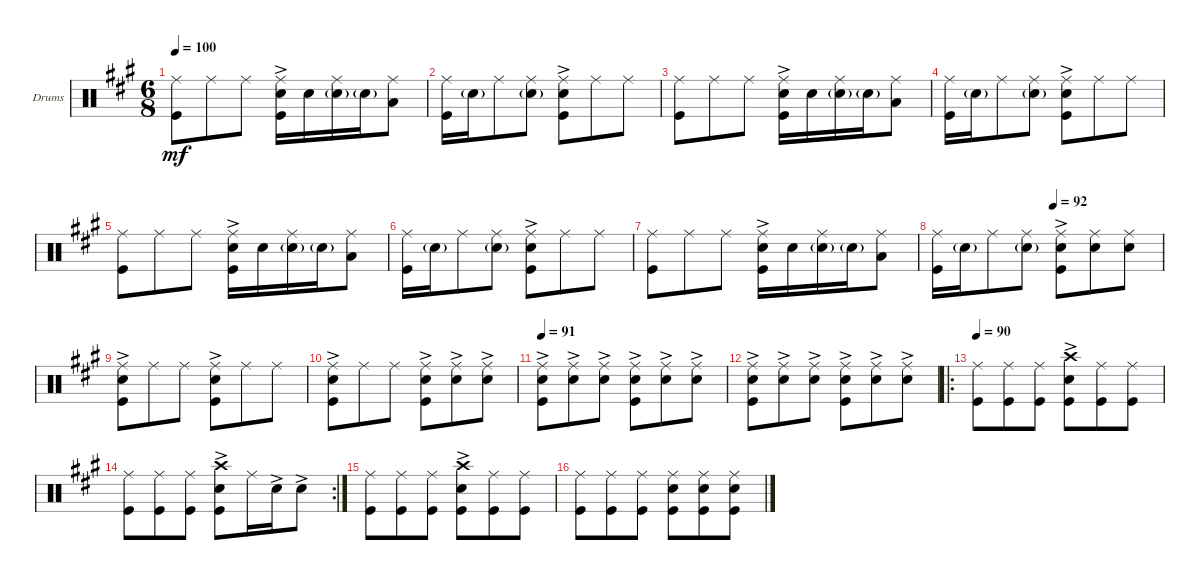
\bracketExtendMode groupsimilarinstruments
\firstSystemTrackNameOrientation horizontal
\otherSystemsTrackNameOrientation horizontal
\track ("Drumkit" "Drums") {instrument percussion}
\staff {score}
\articulation defaults
\ts (6 8)
\tempo 100
\clef neutral
\scale
0.333333
\ks a
("Ride (middle)" "Kick (hit)").8{dy mf} "Ride (middle)".8 "Ride (middle)".8 ("Snare (hit) 2"{ac} "Ride (middle)" "Kick (hit)").16 "Snare (hit) 2".16 ("Snare (hit) 2"{g} "Ride (middle)").16 "Snare (hit) 2"{g}.16 ("Ride (middle)" "Low Tom (hit)").8 |
\scale
0.333333 ("Ride (middle)" "Kick (hit)").16 "Snare (hit) 2"{g}.16 "Ride (middle)".8 ("Snare (hit) 2"{g} "Ride (middle)").8 ("Snare (hit) 2"{ac} "Ride (middle)" "Kick (hit)").8 "Ride (middle)".8 "Ride (middle)".8 |
\scale
0.333333 ("Ride (middle)" "Kick (hit)").8 "Ride (middle)".8 "Ride (middle)".8 ("Snare (hit) 2"{ac} "Ride (middle)" "Kick (hit)").16 "Snare (hit) 2".16 ("Snare (hit) 2"{g} "Ride (middle)").16 "Snare (hit) 2"{g}.16 ("Ride (middle)" "Low Tom (hit)").8 |
\scale
0.333333 ("Ride (middle)" "Kick (hit)").16 "Snare (hit) 2"{g}.16 "Ride (middle)".8 ("Snare (hit) 2"{g} "Ride (middle)").8 ("Snare (hit) 2"{ac} "Ride (middle)" "Kick (hit)").8 "Ride (middle)".8 "Ride (middle)".8 |
\scale
0.333333 ("Ride (middle)" "Kick (hit)").8 "Ride (middle)".8 "Ride (middle)".8 ("Snare (hit) 2"{ac} "Ride (middle)" "Kick (hit)").16 "Snare (hit) 2".16 ("Snare (hit) 2"{g} "Ride (middle)").16 "Snare (hit) 2"{g}.16 ("Ride (middle)" "Low Tom (hit)").8 |
\scale
0.333333 ("Ride (middle)" "Kick (hit)").16 "Snare (hit) 2"{g}.16 "Ride (middle)".8 ("Snare (hit) 2"{g} "Ride (middle)").8 ("Snare (hit) 2"{ac} "Ride (middle)" "Kick (hit)").8 "Ride (middle)".8 "Ride (middle)".8 |
\scale
0.333333 ("Ride (middle)" "Kick (hit)").8 "Ride (middle)".8 "Ride (middle)".8 ("Snare (hit) 2"{ac} "Ride (middle)" "Kick (hit)").16 "Snare (hit) 2".16 ("Snare (hit) 2"{g} "Ride (middle)").16 "Snare (hit) 2"{g}.16 ("Ride (middle)" "Low Tom (hit)").8 |
\tempo (92 0.51875)
\scale
0.333333 ("Ride (middle)" "Kick (hit)").16 "Snare (hit) 2"{g}.16 "Ride (middle)".8 ("Snare (hit) 2"{g} "Ride (middle)").8 ("Snare (hit) 2"{ac} "Ride (middle)" "Kick (hit)").8 ("Ride (middle)" "Snare (hit) 2").8 ("Ride (middle)" "Snare (hit) 2").8 |
\scale
0.333333 ("Snare (hit) 2"{ac} "Ride (middle)" "Kick (hit)").8 "Ride (middle)".8 "Ride (middle)".8 ("Snare (hit) 2"{ac} "Ride (middle)" "Kick (hit)").8 "Ride (middle)".8 "Ride (middle)".8 |
\scale
0.333333 ("Snare (hit) 2"{ac} "Ride (middle)" "Kick (hit)").8 "Ride (middle)".8 "Ride (middle)".8 ("Snare (hit) 2"{ac} "Ride (middle)" "Kick (hit)").8 ("Ride (middle)" "Snare (hit) 2"{ac}).8 ("Ride (middle)" "Snare (hit) 2"{ac}).8 |
\tempo 91
\scale
0.333333 ("Snare (hit) 2"{ac} "Ride (middle)" "Kick (hit)").8 ("Ride (middle)" "Snare (hit) 2"{ac}).8 ("Ride (middle)" "Snare (hit) 2"{ac}).8 ("Snare (hit) 2"{ac} "Ride (middle)" "Kick (hit)").8 ("Ride (middle)" "Snare (hit) 2"{ac}).8 ("Ride (middle)" "Snare (hit) 2"{ac}).8 |
\scale
0.301587 ("Snare (hit) 2"{ac} "Ride (middle)" "Kick (hit)").8 ("Ride (middle)" "Snare (hit) 2"{ac}).8 ("Ride (middle)" "Snare (hit) 2"{ac}).8 ("Snare (hit) 2"{ac} "Ride (middle)" "Kick (hit)").8 ("Ride (middle)" "Snare (hit) 2"{ac}).8 ("Ride (middle)" "Snare (hit) 2"{ac}).8 |
\ro
\tempo 90
\scale
0.365079 ("Kick (hit)" "Ride (middle)").8 ("Ride (middle)" "Kick (hit)").8 ("Kick (hit)" "Ride (middle)").8 ("Crash high (hit)"{ac} "Kick (hit)" "Snare (hit) 2").8 ("Ride (middle)" "Kick (hit)").8 ("Kick (hit)" "Ride (middle)").8 |
\rc 2
\scale
0.333333 ("Kick (hit)" "Ride (middle)").8 ("Ride (middle)" "Kick (hit)").8 ("Kick (hit)" "Ride (middle)").8 ("Crash high (hit)"{ac} "Snare (hit) 2" "Kick (hit)").8 "Ride (middle)".16 "Snare (hit) 2"{ac}.16 "Snare (hit) 2"{ac}.8 |
\scale
0.333333 ("Kick (hit)" "Ride (middle)").8 ("Ride (middle)" "Kick (hit)").8 ("Kick (hit)" "Ride (middle)").8 ("Crash high (hit)"{ac} "Kick (hit)" "Snare (hit) 2").8 ("Ride (middle)" "Kick (hit)").8 ("Kick (hit)" "Ride (middle)").8 |
\scale
0.333333 ("Kick (hit)" "Ride (middle)").8 ("Ride (middle)" "Kick (hit)").8 ("Kick (hit)" "Ride (middle)").8 ("Kick (hit)" "Ride (middle)" "Snare (hit) 2").8 ("Ride (middle)" "Kick (hit)" "Snare (hit) 2").8 ("Kick (hit)" "Ride (middle)" "Snare (hit) 2").8
